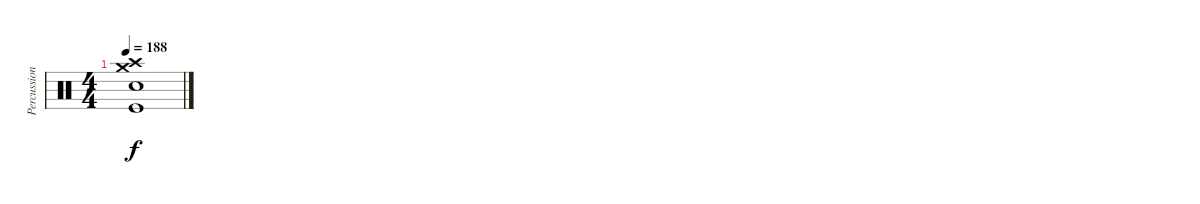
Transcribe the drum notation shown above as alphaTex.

\track ("Percussion" "Percussion") {instrument percussion}
\staff {score}
\articulation defaults
\ts (4 4)
\tempo 188
\clef neutral
\ks c
("Crash medium (hit)"{t} "Crash high (hit)"{t} "Snare (hit) 2"{t} "Kick (hit)"{t}).1{dy f}
